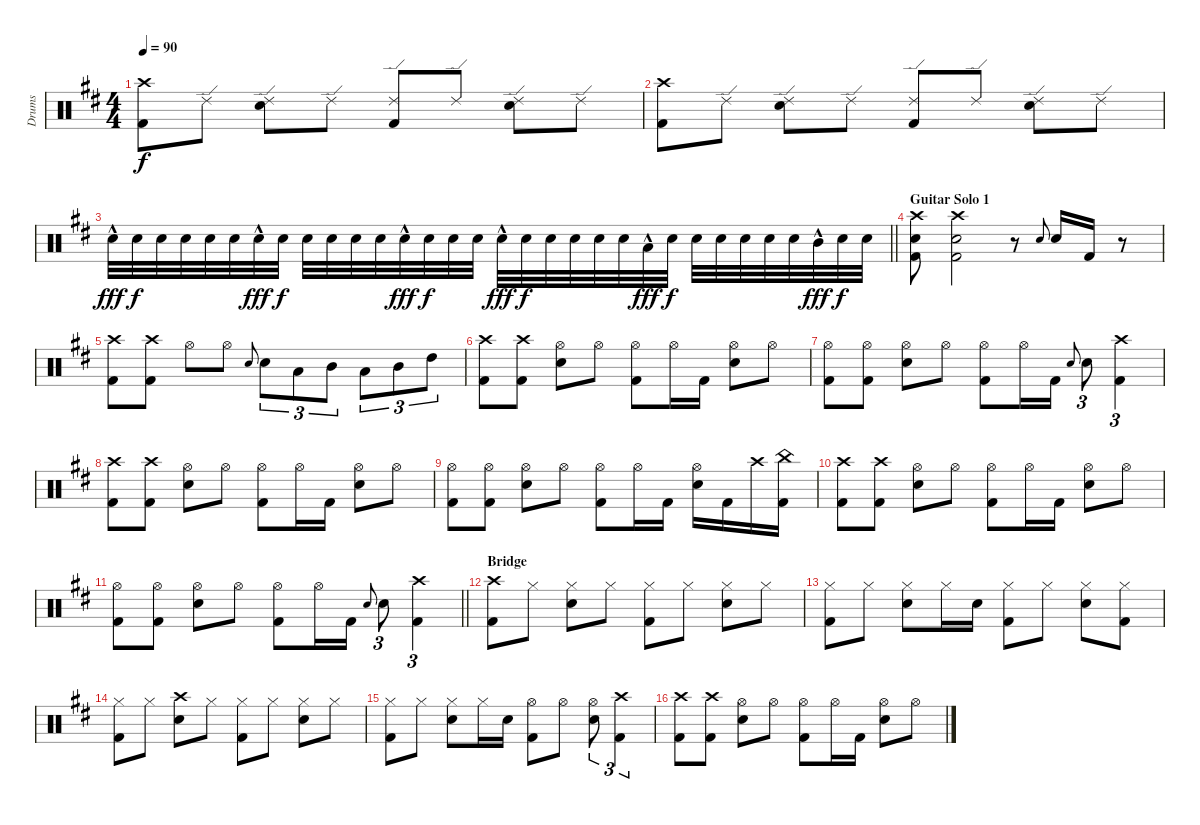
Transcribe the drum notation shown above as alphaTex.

\track ("Drums" "Drums") {instrument percussion}
\staff {score}
\articulation defaults
\ts (4 4)
\tempo 90
\clef neutral
\ks bminor
("Crash high (hit)" "Kick (hit) 2").8{dy f} "Ride (edge) 2".8 ("Ride (edge) 2" "Snare (hit) 2").8 "Ride (edge) 2".8 ("Ride (edge) 2" "Kick (hit) 2").8 "Ride (edge) 2".8 ("Ride (edge) 2" "Snare (hit) 2").8 "Ride (edge) 2".8 |
("Crash high (hit)" "Kick (hit) 2").8 "Ride (edge) 2".8 ("Ride (edge) 2" "Snare (hit) 2").8 "Ride (edge) 2".8 ("Ride (edge) 2" "Kick (hit) 2").8 "Ride (edge) 2".8 ("Ride (edge) 2" "Snare (hit) 2").8 "Ride (edge) 2".8 |
\barLineRight lightlight "Snare (hit) 2"{hac}.32{dy fff} "Snare (hit) 2".32{dy f} "Snare (hit) 2".32 "Snare (hit) 2".32 "Snare (hit) 2".32 "Snare (hit) 2".32 "Snare (hit) 2"{hac}.32{dy fff} "Snare (hit) 2".32{dy f} "Snare (hit) 2".32 "Snare (hit) 2".32 "Snare (hit) 2".32 "Snare (hit) 2".32 "Snare (hit) 2"{hac}.32{dy fff} "Snare (hit) 2".32{dy f} "Snare (hit) 2".32 "Snare (hit) 2".32 "Snare (hit) 2"{hac}.32{dy fff} "Snare (hit) 2".32{dy f} "Snare (hit) 2".32 "Snare (hit) 2".32 "Snare (hit) 2".32 "Snare (hit) 2".32 "Low Tom (hit)"{hac}.32{dy fff} "Snare (hit) 2".32{dy f} "Snare (hit) 2".32 "Snare (hit) 2".32 "Snare (hit) 2".32 "Snare (hit) 2".32 "Snare (hit) 2".32 "Mid Tom (hit)"{hac}.32{dy fff} "Snare (hit) 2".32{dy f} "Snare (hit) 2".32
|
\section ("" "Guitar Solo 1")
("Crash high (hit)" "Snare (hit) 2" "Kick (hit) 2").8 ("Crash high (hit)" "Snare (hit) 2" "Kick (hit) 2").2 r.8 "Snare (hit) 2".8{gr onbeat} "Snare (hit) 2".16 "Kick (hit) 2".16 r.8 |
("Crash high (hit)" "Kick (hit) 2").8 ("Crash high (hit)" "Kick (hit) 2").8 "Hi-Hat (open)".8 "Hi-Hat (open)".8 "Snare (hit) 2".8{gr onbeat} "Snare (hit) 2".8{tu (3 2)} "Low Tom (hit)".8{tu (3 2)} "Mid Tom (hit)".8{tu (3 2)} "Low Tom (hit)".8{tu (3 2)} "Mid Tom (hit)".8{tu (3 2)} "High Tom (hit)".8{tu (3 2)} |
("Crash high (hit)" "Kick (hit) 2").8 ("Crash high (hit)" "Kick (hit) 2").8 ("Hi-Hat (open)" "Snare (hit) 2").8 "Hi-Hat (open)".8 ("Hi-Hat (open)" "Kick (hit) 2").8 "Hi-Hat (open)".16 "Kick (hit) 2".16 ("Hi-Hat (open)" "Snare (hit) 2").8 "Hi-Hat (open)".8 |
("Hi-Hat (open)" "Kick (hit) 2").8 ("Hi-Hat (open)" "Kick (hit) 2").8 ("Hi-Hat (open)" "Snare (hit) 2").8 "Hi-Hat (open)".8 ("Hi-Hat (open)" "Kick (hit) 2").8 "Hi-Hat (open)".16 "Kick (hit) 2".16 "Snare (hit) 2".8{gr onbeat} "Snare (hit) 2".8{tu (3 2)} ("Crash high (hit)" "Kick (hit) 2").4{tu (3 2)} |
("Crash high (hit)" "Kick (hit) 2").8 ("Crash high (hit)" "Kick (hit) 2").8 ("Hi-Hat (open)" "Snare (hit) 2").8 "Hi-Hat (open)".8 ("Hi-Hat (open)" "Kick (hit) 2").8 "Hi-Hat (open)".16 "Kick (hit) 2".16 ("Hi-Hat (open)" "Snare (hit) 2").8 "Hi-Hat (open)".8 |
("Hi-Hat (open)" "Kick (hit) 2").8 ("Hi-Hat (open)" "Kick (hit) 2").8 ("Hi-Hat (open)" "Snare (hit) 2").8 "Hi-Hat (open)".8 ("Hi-Hat (open)" "Kick (hit) 2").8 "Hi-Hat (open)".16 "Kick (hit) 2".16 ("Hi-Hat (open)" "Snare (hit) 2").16 "Kick (hit) 2".16 "Crash high (hit)".16 ("China (hit)" "Kick (hit) 2").16 |
("Crash high (hit)" "Kick (hit) 2").8{volume 16} ("Crash high (hit)" "Kick (hit) 2").8 ("Hi-Hat (open)" "Snare (hit) 2").8 "Hi-Hat (open)".8 ("Hi-Hat (open)" "Kick (hit) 2").8 "Hi-Hat (open)".16 "Kick (hit) 2".16 ("Hi-Hat (open)" "Snare (hit) 2").8 "Hi-Hat (open)".8 |
\barLineRight lightlight
("Hi-Hat (open)" "Kick (hit) 2").8 ("Hi-Hat (open)" "Kick (hit) 2").8 ("Hi-Hat (open)" "Snare (hit) 2").8 "Hi-Hat (open)".8 ("Hi-Hat (open)" "Kick (hit) 2").8 "Hi-Hat (open)".16 "Kick (hit) 2".16 "Snare (hit) 2".8{gr onbeat} "Snare (hit) 2".8{tu (3 2)} ("Crash high (hit)" "Kick (hit) 2").4{tu (3 2)} |
\section ("" "Bridge")
("Crash high (hit)" "Kick (hit) 2").8 "Hi-Hat (closed)".8 ("Hi-Hat (closed)" "Snare (hit) 2").8 "Hi-Hat (closed)".8 ("Hi-Hat (closed)" "Kick (hit) 2").8 "Hi-Hat (closed)".8 ("Hi-Hat (closed)" "Snare (hit) 2").8 "Hi-Hat (closed)".8 |
("Hi-Hat (closed)" "Kick (hit) 2").8 "Hi-Hat (closed)".8 ("Hi-Hat (closed)" "Snare (hit) 2").8 "Hi-Hat (closed)".16 "Snare (hit) 2".16 ("Hi-Hat (closed)" "Kick (hit) 2").8 "Hi-Hat (closed)".8 ("Hi-Hat (closed)" "Snare (hit) 2").8 ("Hi-Hat (closed)" "Kick (hit) 2").8 |
("Hi-Hat (closed)" "Kick (hit) 2").8 "Hi-Hat (closed)".8 ("Crash high (hit)" "Snare (hit) 2").8 "Hi-Hat (closed)".8 ("Hi-Hat (closed)" "Kick (hit) 2").8 "Hi-Hat (closed)".8 ("Hi-Hat (closed)" "Snare (hit) 2").8 "Hi-Hat (closed)".8 |
("Hi-Hat (closed)" "Kick (hit) 2").8 "Hi-Hat (closed)".8 ("Hi-Hat (closed)" "Snare (hit) 2").8 "Hi-Hat (closed)".16 "Snare (hit) 2".16 ("Hi-Hat (open)" "Kick (hit) 2").8 "Hi-Hat (open)".8 ("Hi-Hat (open)" "Snare (hit) 2").8{tu (3 2)} ("Crash high (hit)" "Kick (hit) 2").4{tu (3 2)} |
("Crash high (hit)" "Kick (hit) 2").8 ("Crash high (hit)" "Kick (hit) 2").8 ("Hi-Hat (open)" "Snare (hit) 2").8 "Hi-Hat (open)".8 ("Hi-Hat (open)" "Kick (hit) 2").8 "Hi-Hat (open)".16 "Kick (hit) 2".16 ("Hi-Hat (open)" "Snare (hit) 2").8 "Hi-Hat (open)".8
